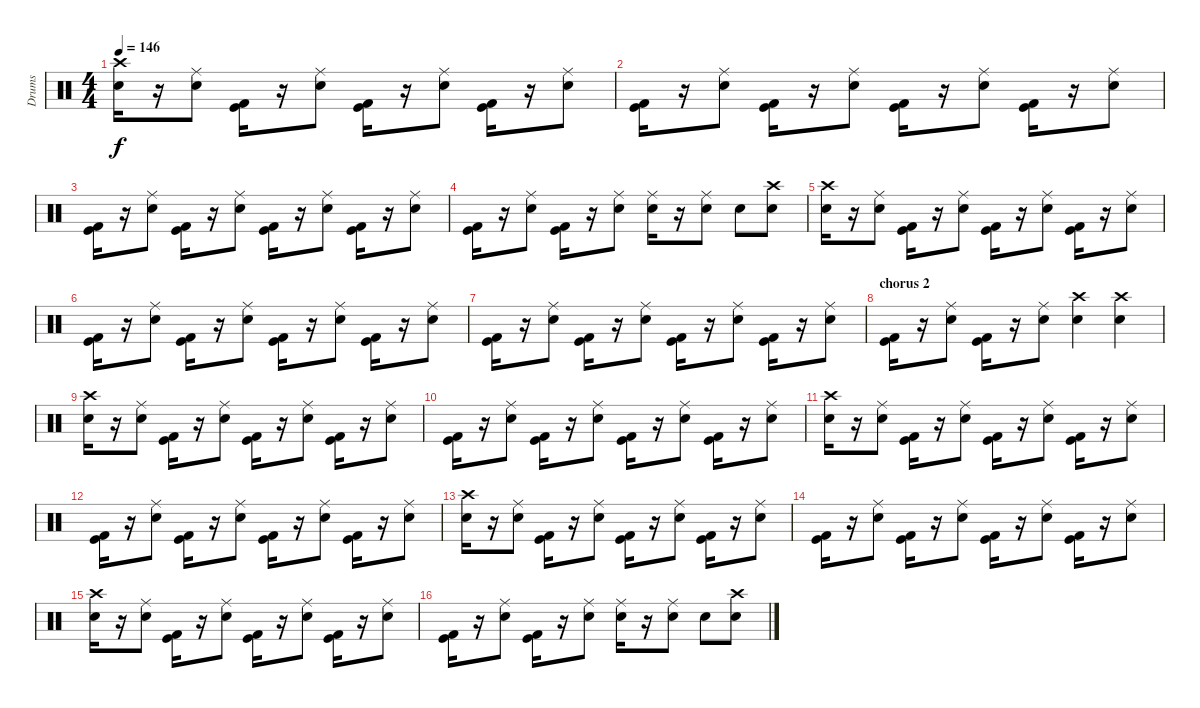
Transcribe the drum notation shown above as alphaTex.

\track ("Drums" "Drums") {instrument percussion}
\staff {score}
\articulation defaults
\ts (4 4)
\tempo 146
\clef neutral
\ks c
("Crash high (hit)" "Electric Snare (hit)").16{dy f} r.16 ("Ride (middle)" "Electric Snare (hit)").8 ("Kick (hit)" "Kick (hit) 2").16 r.16 ("Ride (middle)" "Electric Snare (hit)").8 ("Kick (hit)" "Kick (hit) 2").16 r.16 ("Ride (middle)" "Electric Snare (hit)").8 ("Kick (hit)" "Kick (hit) 2").16 r.16 ("Ride (middle)" "Electric Snare (hit)").8 |
("Kick (hit)" "Kick (hit) 2").16 r.16 ("Ride (middle)" "Electric Snare (hit)").8 ("Kick (hit)" "Kick (hit) 2").16 r.16 ("Ride (middle)" "Electric Snare (hit)").8 ("Kick (hit)" "Kick (hit) 2").16 r.16 ("Ride (middle)" "Electric Snare (hit)").8 ("Kick (hit)" "Kick (hit) 2").16 r.16 ("Ride (middle)" "Electric Snare (hit)").8 |
("Kick (hit)" "Kick (hit) 2").16 r.16 ("Ride (middle)" "Electric Snare (hit)").8 ("Kick (hit)" "Kick (hit) 2").16 r.16 ("Ride (middle)" "Electric Snare (hit)").8 ("Kick (hit)" "Kick (hit) 2").16 r.16 ("Ride (middle)" "Electric Snare (hit)").8 ("Kick (hit)" "Kick (hit) 2").16 r.16 ("Ride (middle)" "Electric Snare (hit)").8 |
("Kick (hit)" "Kick (hit) 2").16 r.16 ("Ride (middle)" "Electric Snare (hit)").8 ("Kick (hit)" "Kick (hit) 2").16 r.16 ("Ride (middle)" "Electric Snare (hit)").8 ("Ride (middle)" "Electric Snare (hit)").16 r.16 ("Ride (middle)" "Electric Snare (hit)").8 "Electric Snare (hit)"{tr (40 16)}.8 ("Crash high (hit)" "Electric Snare (hit)").8 |
("Crash high (hit)" "Electric Snare (hit)").16 r.16 ("Ride (middle)" "Electric Snare (hit)").8 ("Kick (hit)" "Kick (hit) 2").16 r.16 ("Ride (middle)" "Electric Snare (hit)").8 ("Kick (hit)" "Kick (hit) 2").16 r.16 ("Ride (middle)" "Electric Snare (hit)").8 ("Kick (hit)" "Kick (hit) 2").16 r.16 ("Ride (middle)" "Electric Snare (hit)").8 |
("Kick (hit)" "Kick (hit) 2").16 r.16 ("Ride (middle)" "Electric Snare (hit)").8 ("Kick (hit)" "Kick (hit) 2").16 r.16 ("Ride (middle)" "Electric Snare (hit)").8 ("Kick (hit)" "Kick (hit) 2").16 r.16 ("Ride (middle)" "Electric Snare (hit)").8 ("Kick (hit)" "Kick (hit) 2").16 r.16 ("Ride (middle)" "Electric Snare (hit)").8 |
("Kick (hit)" "Kick (hit) 2").16 r.16 ("Ride (middle)" "Electric Snare (hit)").8 ("Kick (hit)" "Kick (hit) 2").16 r.16 ("Ride (middle)" "Electric Snare (hit)").8 ("Kick (hit)" "Kick (hit) 2").16 r.16 ("Ride (middle)" "Electric Snare (hit)").8 ("Kick (hit)" "Kick (hit) 2").16 r.16 ("Ride (middle)" "Electric Snare (hit)").8 |
\section ("" "chorus 2")
("Kick (hit)" "Kick (hit) 2").16 r.16 ("Ride (middle)" "Electric Snare (hit)").8 ("Kick (hit)" "Kick (hit) 2").16 r.16 ("Ride (middle)" "Electric Snare (hit)").8 ("Crash high (hit)" "Electric Snare (hit)").4 ("Crash high (hit)" "Electric Snare (hit)").4 |
("Crash high (hit)" "Electric Snare (hit)").16 r.16 ("Ride (middle)" "Electric Snare (hit)").8 ("Kick (hit)" "Kick (hit) 2").16 r.16 ("Ride (middle)" "Electric Snare (hit)").8 ("Kick (hit)" "Kick (hit) 2").16 r.16 ("Ride (middle)" "Electric Snare (hit)").8 ("Kick (hit)" "Kick (hit) 2").16 r.16 ("Ride (middle)" "Electric Snare (hit)").8 |
("Kick (hit)" "Kick (hit) 2").16 r.16 ("Ride (middle)" "Electric Snare (hit)").8 ("Kick (hit)" "Kick (hit) 2").16 r.16 ("Ride (middle)" "Electric Snare (hit)").8 ("Kick (hit)" "Kick (hit) 2").16 r.16 ("Ride (middle)" "Electric Snare (hit)").8 ("Kick (hit)" "Kick (hit) 2").16 r.16 ("Ride (middle)" "Electric Snare (hit)").8 |
("Crash high (hit)" "Electric Snare (hit)").16 r.16 ("Ride (middle)" "Electric Snare (hit)").8 ("Kick (hit)" "Kick (hit) 2").16 r.16 ("Ride (middle)" "Electric Snare (hit)").8 ("Kick (hit)" "Kick (hit) 2").16 r.16 ("Ride (middle)" "Electric Snare (hit)").8 ("Kick (hit)" "Kick (hit) 2").16 r.16 ("Ride (middle)" "Electric Snare (hit)").8 |
("Kick (hit)" "Kick (hit) 2").16 r.16 ("Ride (middle)" "Electric Snare (hit)").8 ("Kick (hit)" "Kick (hit) 2").16 r.16 ("Ride (middle)" "Electric Snare (hit)").8 ("Kick (hit)" "Kick (hit) 2").16 r.16 ("Ride (middle)" "Electric Snare (hit)").8 ("Kick (hit)" "Kick (hit) 2").16 r.16 ("Ride (middle)" "Electric Snare (hit)").8 |
("Crash high (hit)" "Electric Snare (hit)").16 r.16 ("Ride (middle)" "Electric Snare (hit)").8 ("Kick (hit)" "Kick (hit) 2").16 r.16 ("Ride (middle)" "Electric Snare (hit)").8 ("Kick (hit)" "Kick (hit) 2").16 r.16 ("Ride (middle)" "Electric Snare (hit)").8 ("Kick (hit)" "Kick (hit) 2").16 r.16 ("Ride (middle)" "Electric Snare (hit)").8 |
("Kick (hit)" "Kick (hit) 2").16 r.16 ("Ride (middle)" "Electric Snare (hit)").8 ("Kick (hit)" "Kick (hit) 2").16 r.16 ("Ride (middle)" "Electric Snare (hit)").8 ("Kick (hit)" "Kick (hit) 2").16 r.16 ("Ride (middle)" "Electric Snare (hit)").8 ("Kick (hit)" "Kick (hit) 2").16 r.16 ("Ride (middle)" "Electric Snare (hit)").8 |
("Crash high (hit)" "Electric Snare (hit)").16 r.16 ("Ride (middle)" "Electric Snare (hit)").8 ("Kick (hit)" "Kick (hit) 2").16 r.16 ("Ride (middle)" "Electric Snare (hit)").8 ("Kick (hit)" "Kick (hit) 2").16 r.16 ("Ride (middle)" "Electric Snare (hit)").8 ("Kick (hit)" "Kick (hit) 2").16 r.16 ("Ride (middle)" "Electric Snare (hit)").8 |
("Kick (hit)" "Kick (hit) 2").16 r.16 ("Ride (middle)" "Electric Snare (hit)").8 ("Kick (hit)" "Kick (hit) 2").16 r.16 ("Ride (middle)" "Electric Snare (hit)").8 ("Ride (middle)" "Electric Snare (hit)").16 r.16 ("Ride (middle)" "Electric Snare (hit)").8 "Electric Snare (hit)"{tr (40 16)}.8 ("Crash high (hit)" "Electric Snare (hit)").8
